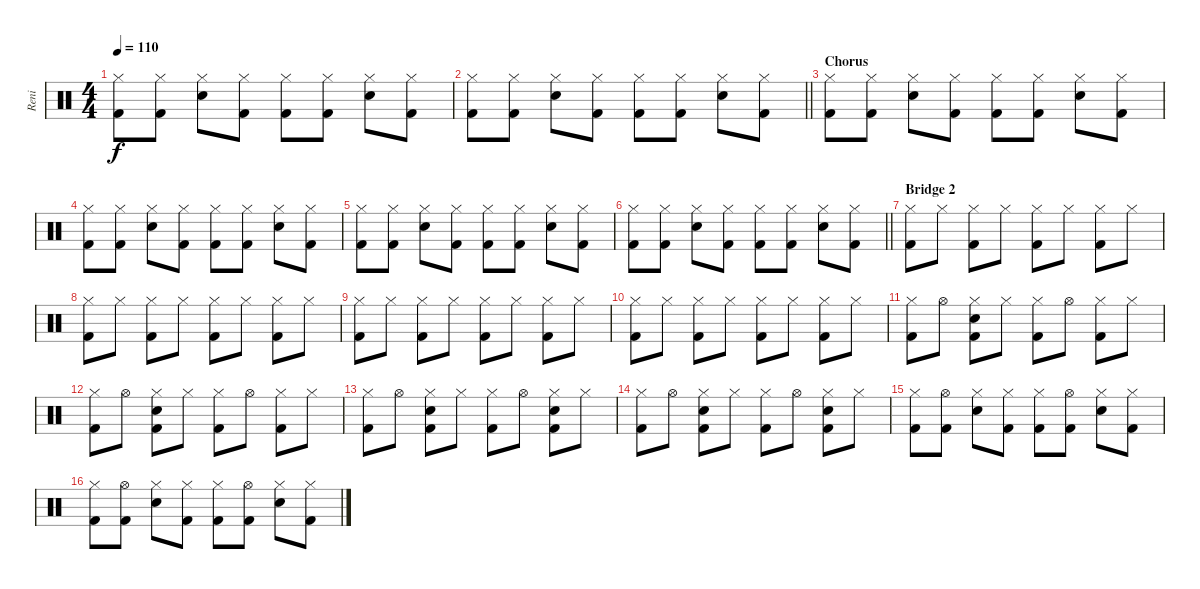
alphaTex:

\track ("Reni" "Reni") {instrument percussion}
\staff {score}
\articulation defaults
\ts (4 4)
\tempo 110
\clef neutral
\ks c
("Hi-Hat (closed)" "Kick (hit) 2").8{dy f} ("Hi-Hat (closed)" "Kick (hit) 2").8 ("Hi-Hat (closed)" "Electric Snare (hit)").8 ("Hi-Hat (closed)" "Kick (hit) 2").8 ("Hi-Hat (closed)" "Kick (hit) 2").8 ("Hi-Hat (closed)" "Kick (hit) 2").8 ("Hi-Hat (closed)" "Electric Snare (hit)").8 ("Hi-Hat (closed)" "Kick (hit) 2").8 |
\barLineRight lightlight
("Hi-Hat (closed)" "Kick (hit) 2").8 ("Hi-Hat (closed)" "Kick (hit) 2").8 ("Hi-Hat (closed)" "Electric Snare (hit)").8 ("Hi-Hat (closed)" "Kick (hit) 2").8 ("Hi-Hat (closed)" "Kick (hit) 2").8 ("Hi-Hat (closed)" "Kick (hit) 2").8 ("Hi-Hat (closed)" "Electric Snare (hit)").8 ("Hi-Hat (closed)" "Kick (hit) 2").8 |
\section ("" "Chorus")
("Hi-Hat (closed)" "Kick (hit) 2").8 ("Hi-Hat (closed)" "Kick (hit) 2").8 ("Hi-Hat (closed)" "Electric Snare (hit)").8 ("Hi-Hat (closed)" "Kick (hit) 2").8 ("Hi-Hat (closed)" "Kick (hit) 2").8 ("Hi-Hat (closed)" "Kick (hit) 2").8 ("Hi-Hat (closed)" "Electric Snare (hit)").8 ("Hi-Hat (closed)" "Kick (hit) 2").8 |
("Hi-Hat (closed)" "Kick (hit) 2").8 ("Hi-Hat (closed)" "Kick (hit) 2").8 ("Hi-Hat (closed)" "Electric Snare (hit)").8 ("Hi-Hat (closed)" "Kick (hit) 2").8 ("Hi-Hat (closed)" "Kick (hit) 2").8 ("Hi-Hat (closed)" "Kick (hit) 2").8 ("Hi-Hat (closed)" "Electric Snare (hit)").8 ("Hi-Hat (closed)" "Kick (hit) 2").8 |
("Hi-Hat (closed)" "Kick (hit) 2").8 ("Hi-Hat (closed)" "Kick (hit) 2").8 ("Hi-Hat (closed)" "Electric Snare (hit)").8 ("Hi-Hat (closed)" "Kick (hit) 2").8 ("Hi-Hat (closed)" "Kick (hit) 2").8 ("Hi-Hat (closed)" "Kick (hit) 2").8 ("Hi-Hat (closed)" "Electric Snare (hit)").8 ("Hi-Hat (closed)" "Kick (hit) 2").8 |
\barLineRight lightlight
("Hi-Hat (closed)" "Kick (hit) 2").8 ("Hi-Hat (closed)" "Kick (hit) 2").8 ("Hi-Hat (closed)" "Electric Snare (hit)").8 ("Hi-Hat (closed)" "Kick (hit) 2").8 ("Hi-Hat (closed)" "Kick (hit) 2").8 ("Hi-Hat (closed)" "Kick (hit) 2").8 ("Hi-Hat (closed)" "Electric Snare (hit)").8 ("Hi-Hat (closed)" "Kick (hit) 2").8 |
\section ("" "Bridge 2")
("Hi-Hat (closed)" "Kick (hit) 2").8 "Hi-Hat (closed)".8 ("Hi-Hat (closed)" "Kick (hit) 2").8 "Hi-Hat (closed)".8 ("Hi-Hat (closed)" "Kick (hit) 2").8 "Hi-Hat (closed)".8 ("Hi-Hat (closed)" "Kick (hit) 2").8 "Hi-Hat (closed)".8 |
("Hi-Hat (closed)" "Kick (hit) 2").8 "Hi-Hat (closed)".8 ("Hi-Hat (closed)" "Kick (hit) 2").8 "Hi-Hat (closed)".8 ("Hi-Hat (closed)" "Kick (hit) 2").8 "Hi-Hat (closed)".8 ("Hi-Hat (closed)" "Kick (hit) 2").8 "Hi-Hat (closed)".8 |
("Hi-Hat (closed)" "Kick (hit) 2").8 "Hi-Hat (closed)".8 ("Hi-Hat (closed)" "Kick (hit) 2").8 "Hi-Hat (closed)".8 ("Hi-Hat (closed)" "Kick (hit) 2").8 "Hi-Hat (closed)".8 ("Hi-Hat (closed)" "Kick (hit) 2").8 "Hi-Hat (closed)".8 |
("Hi-Hat (closed)" "Kick (hit) 2").8 "Hi-Hat (closed)".8 ("Hi-Hat (closed)" "Kick (hit) 2").8 "Hi-Hat (closed)".8 ("Hi-Hat (closed)" "Kick (hit) 2").8 "Hi-Hat (closed)".8 ("Hi-Hat (closed)" "Kick (hit) 2").8 "Hi-Hat (closed)".8 |
("Hi-Hat (closed)" "Kick (hit) 2").8 "Hi-Hat (open)".8 ("Hi-Hat (closed)" "Electric Snare (hit)" "Kick (hit) 2").8 "Hi-Hat (closed)".8 ("Hi-Hat (closed)" "Kick (hit) 2").8 "Hi-Hat (open)".8 ("Hi-Hat (closed)" "Kick (hit) 2").8 "Hi-Hat (closed)".8 |
("Hi-Hat (closed)" "Kick (hit) 2").8 "Hi-Hat (open)".8 ("Hi-Hat (closed)" "Electric Snare (hit)" "Kick (hit) 2").8 "Hi-Hat (closed)".8 ("Hi-Hat (closed)" "Kick (hit) 2").8 "Hi-Hat (open)".8 ("Hi-Hat (closed)" "Kick (hit) 2").8 "Hi-Hat (closed)".8 |
("Hi-Hat (closed)" "Kick (hit) 2").8 "Hi-Hat (open)".8 ("Hi-Hat (closed)" "Electric Snare (hit)" "Kick (hit) 2").8 "Hi-Hat (closed)".8 ("Hi-Hat (closed)" "Kick (hit) 2").8 "Hi-Hat (open)".8 ("Hi-Hat (closed)" "Electric Snare (hit)" "Kick (hit) 2").8 "Hi-Hat (closed)".8 |
("Hi-Hat (closed)" "Kick (hit) 2").8 "Hi-Hat (open)".8 ("Hi-Hat (closed)" "Electric Snare (hit)" "Kick (hit) 2").8 "Hi-Hat (closed)".8 ("Hi-Hat (closed)" "Kick (hit) 2").8 "Hi-Hat (open)".8 ("Hi-Hat (closed)" "Electric Snare (hit)" "Kick (hit) 2").8 "Hi-Hat (closed)".8 |
("Hi-Hat (closed)" "Kick (hit) 2").8 ("Hi-Hat (open)" "Kick (hit) 2").8 ("Hi-Hat (closed)" "Electric Snare (hit)").8 ("Hi-Hat (closed)" "Kick (hit) 2").8 ("Hi-Hat (closed)" "Kick (hit) 2").8 ("Hi-Hat (open)" "Kick (hit) 2").8 ("Hi-Hat (closed)" "Electric Snare (hit)").8 ("Hi-Hat (closed)" "Kick (hit) 2").8 |
("Hi-Hat (closed)" "Kick (hit) 2").8 ("Hi-Hat (open)" "Kick (hit) 2").8 ("Hi-Hat (closed)" "Electric Snare (hit)").8 ("Hi-Hat (closed)" "Kick (hit) 2").8 ("Hi-Hat (closed)" "Kick (hit) 2").8 ("Hi-Hat (open)" "Kick (hit) 2").8 ("Hi-Hat (closed)" "Electric Snare (hit)").8 ("Hi-Hat (closed)" "Kick (hit) 2").8
